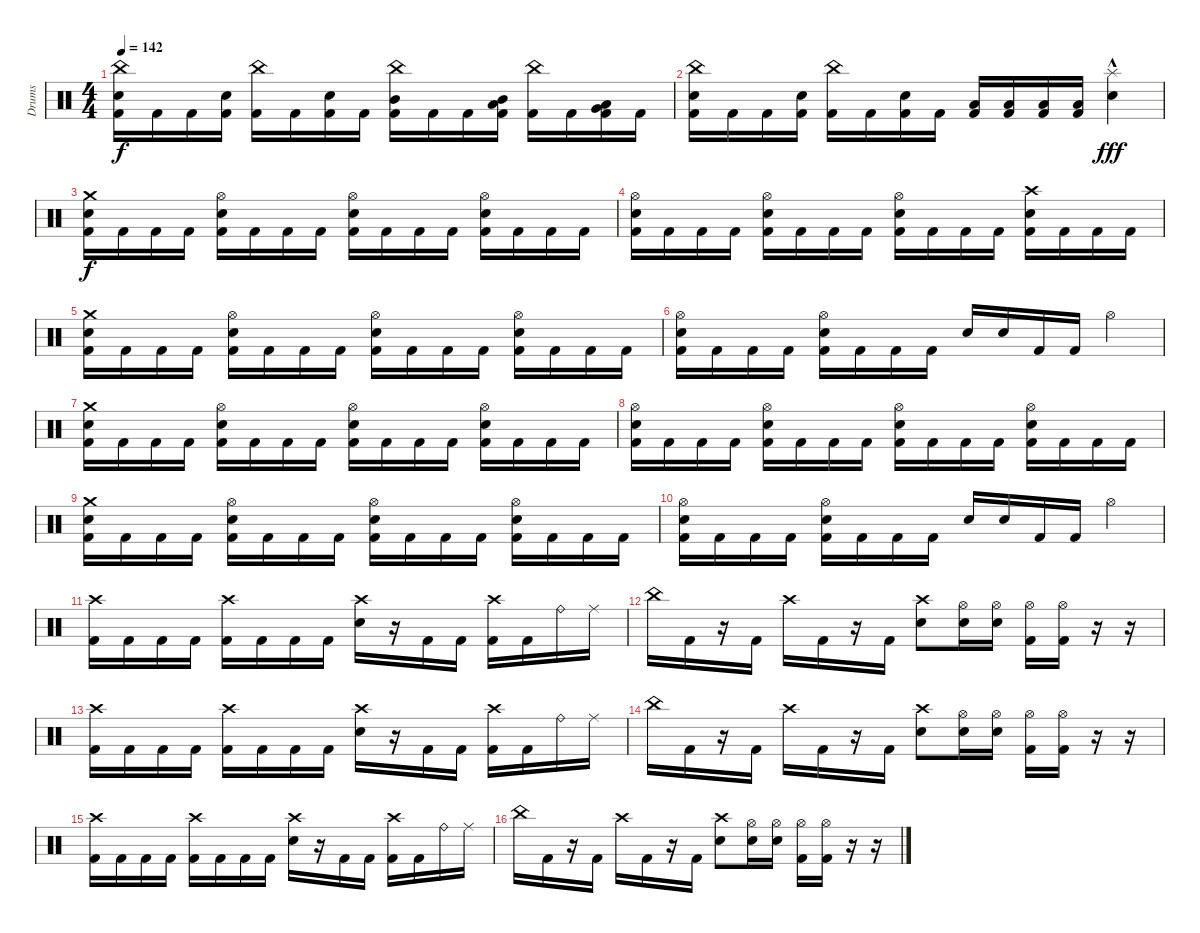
\track ("Drums" "Drums") {instrument percussion}
\staff {score}
\articulation defaults
\ts (4 4)
\tempo 142
\clef neutral
\ks c
("China (hit)" "Electric Snare (hit)" "Kick (hit) 2").16{dy f} "Kick (hit) 2".16 "Kick (hit) 2".16 ("Electric Snare (hit)" "Kick (hit) 2").16 ("China (hit)" "Kick (hit) 2").16 "Kick (hit) 2".16 ("Electric Snare (hit)" "Kick (hit) 2").16 "Kick (hit) 2".16 ("China (hit)" "Mid Tom (hit)" "Kick (hit) 2").16 "Kick (hit) 2".16 "Kick (hit) 2".16 ("Mid Tom (hit)" "Low Tom (hit)" "Kick (hit) 2").16 ("China (hit)" "Kick (hit) 2").16 "Kick (hit) 2".16 ("Very Low Tom (hit)" "Low Floor Tom (hit)" "Kick (hit) 2").16 "Kick (hit) 2".16 |
("China (hit)" "Electric Snare (hit)" "Kick (hit) 2").16 "Kick (hit) 2".16 "Kick (hit) 2".16 ("Electric Snare (hit)" "Kick (hit) 2").16 ("China (hit)" "Kick (hit) 2").16 "Kick (hit) 2".16 ("Electric Snare (hit)" "Kick (hit) 2").16 "Kick (hit) 2".16 ("Low Tom (hit)" "Kick (hit) 2").16 ("Low Tom (hit)" "Kick (hit) 2").16 ("Low Floor Tom (hit)" "Kick (hit) 2").16 ("Low Floor Tom (hit)" "Kick (hit) 2").16 ("Splash (hit)"{hac} "Electric Snare (hit)").4{dy fff} |
("Crash medium (hit)" "Electric Snare (hit)" "Kick (hit) 2").16{dy f} "Kick (hit) 2".16 "Kick (hit) 2".16 "Kick (hit) 2".16 ("Hi-Hat (open)" "Electric Snare (hit)" "Kick (hit) 2").16 "Kick (hit) 2".16 "Kick (hit) 2".16 "Kick (hit) 2".16 ("Hi-Hat (open)" "Electric Snare (hit)" "Kick (hit) 2").16 "Kick (hit) 2".16 "Kick (hit) 2".16 "Kick (hit) 2".16 ("Hi-Hat (open)" "Electric Snare (hit)" "Kick (hit) 2").16 "Kick (hit) 2".16 "Kick (hit) 2".16 "Kick (hit) 2".16 |
("Hi-Hat (open)" "Electric Snare (hit)" "Kick (hit) 2").16 "Kick (hit) 2".16 "Kick (hit) 2".16 "Kick (hit) 2".16 ("Hi-Hat (open)" "Electric Snare (hit)" "Kick (hit) 2").16 "Kick (hit) 2".16 "Kick (hit) 2".16 "Kick (hit) 2".16 ("Hi-Hat (open)" "Electric Snare (hit)" "Kick (hit) 2").16 "Kick (hit) 2".16 "Kick (hit) 2".16 "Kick (hit) 2".16 ("Crash high (hit)" "Electric Snare (hit)" "Kick (hit) 2").16 "Kick (hit) 2".16 "Kick (hit) 2".16 "Kick (hit) 2".16 |
("Crash medium (hit)" "Electric Snare (hit)" "Kick (hit) 2").16 "Kick (hit) 2".16 "Kick (hit) 2".16 "Kick (hit) 2".16 ("Hi-Hat (open)" "Electric Snare (hit)" "Kick (hit) 2").16 "Kick (hit) 2".16 "Kick (hit) 2".16 "Kick (hit) 2".16 ("Hi-Hat (open)" "Electric Snare (hit)" "Kick (hit) 2").16 "Kick (hit) 2".16 "Kick (hit) 2".16 "Kick (hit) 2".16 ("Hi-Hat (open)" "Electric Snare (hit)" "Kick (hit) 2").16 "Kick (hit) 2".16 "Kick (hit) 2".16 "Kick (hit) 2".16 |
("Hi-Hat (open)" "Electric Snare (hit)" "Kick (hit) 2").16 "Kick (hit) 2".16 "Kick (hit) 2".16 "Kick (hit) 2".16 ("Hi-Hat (open)" "Electric Snare (hit)" "Kick (hit) 2").16 "Kick (hit) 2".16 "Kick (hit) 2".16 "Kick (hit) 2".16 "Electric Snare (hit)".16 "Electric Snare (hit)".16 "Kick (hit) 2".16 "Kick (hit) 2".16 "Hi-Hat (open)".4 |
("Crash medium (hit)" "Electric Snare (hit)" "Kick (hit) 2").16 "Kick (hit) 2".16 "Kick (hit) 2".16 "Kick (hit) 2".16 ("Hi-Hat (open)" "Electric Snare (hit)" "Kick (hit) 2").16 "Kick (hit) 2".16 "Kick (hit) 2".16 "Kick (hit) 2".16 ("Hi-Hat (open)" "Electric Snare (hit)" "Kick (hit) 2").16 "Kick (hit) 2".16 "Kick (hit) 2".16 "Kick (hit) 2".16 ("Hi-Hat (open)" "Electric Snare (hit)" "Kick (hit) 2").16 "Kick (hit) 2".16 "Kick (hit) 2".16 "Kick (hit) 2".16 |
("Hi-Hat (open)" "Electric Snare (hit)" "Kick (hit) 2").16 "Kick (hit) 2".16 "Kick (hit) 2".16 "Kick (hit) 2".16 ("Hi-Hat (open)" "Electric Snare (hit)" "Kick (hit) 2").16 "Kick (hit) 2".16 "Kick (hit) 2".16 "Kick (hit) 2".16 ("Hi-Hat (open)" "Electric Snare (hit)" "Kick (hit) 2").16 "Kick (hit) 2".16 "Kick (hit) 2".16 "Kick (hit) 2".16 ("Hi-Hat (open)" "Electric Snare (hit)" "Kick (hit) 2").16 "Kick (hit) 2".16 "Kick (hit) 2".16 "Kick (hit) 2".16 |
("Crash medium (hit)" "Electric Snare (hit)" "Kick (hit) 2").16 "Kick (hit) 2".16 "Kick (hit) 2".16 "Kick (hit) 2".16 ("Hi-Hat (open)" "Electric Snare (hit)" "Kick (hit) 2").16 "Kick (hit) 2".16 "Kick (hit) 2".16 "Kick (hit) 2".16 ("Hi-Hat (open)" "Electric Snare (hit)" "Kick (hit) 2").16 "Kick (hit) 2".16 "Kick (hit) 2".16 "Kick (hit) 2".16 ("Hi-Hat (open)" "Electric Snare (hit)" "Kick (hit) 2").16 "Kick (hit) 2".16 "Kick (hit) 2".16 "Kick (hit) 2".16 |
("Hi-Hat (open)" "Electric Snare (hit)" "Kick (hit) 2").16 "Kick (hit) 2".16 "Kick (hit) 2".16 "Kick (hit) 2".16 ("Hi-Hat (open)" "Electric Snare (hit)" "Kick (hit) 2").16 "Kick (hit) 2".16 "Kick (hit) 2".16 "Kick (hit) 2".16 "Electric Snare (hit)".16 "Electric Snare (hit)".16 "Kick (hit) 2".16 "Kick (hit) 2".16 "Hi-Hat (open)".4 |
("Crash high (hit)" "Kick (hit) 2").16 "Kick (hit) 2".16 "Kick (hit) 2".16 "Kick (hit) 2".16 ("Crash high (hit)" "Kick (hit) 2").16 "Kick (hit) 2".16 "Kick (hit) 2".16 "Kick (hit) 2".16 ("Crash high (hit)" "Electric Snare (hit)").16 r.16 "Kick (hit) 2".16 "Kick (hit) 2".16 ("Crash high (hit)" "Kick (hit) 2").16 "Kick (hit) 2".16 "Ride (bell)".16 "Ride (middle)".16 |
"China (hit)".16 "Kick (hit) 2".16 r.16 "Kick (hit) 2".16 "Crash high (hit)".16 "Kick (hit) 2".16 r.16 "Kick (hit) 2".16 ("Crash high (hit)" "Electric Snare (hit)").8 ("Hi-Hat (open)" "Electric Snare (hit)").16 ("Hi-Hat (open)" "Electric Snare (hit)").16 ("Hi-Hat (open)" "Kick (hit) 2").16 ("Hi-Hat (open)" "Kick (hit) 2").16 r.16 r.16 |
("Crash high (hit)" "Kick (hit) 2").16 "Kick (hit) 2".16 "Kick (hit) 2".16 "Kick (hit) 2".16 ("Crash high (hit)" "Kick (hit) 2").16 "Kick (hit) 2".16 "Kick (hit) 2".16 "Kick (hit) 2".16 ("Crash high (hit)" "Electric Snare (hit)").16 r.16 "Kick (hit) 2".16 "Kick (hit) 2".16 ("Crash high (hit)" "Kick (hit) 2").16 "Kick (hit) 2".16 "Ride (bell)".16 "Ride (middle)".16 |
"China (hit)".16 "Kick (hit) 2".16 r.16 "Kick (hit) 2".16 "Crash high (hit)".16 "Kick (hit) 2".16 r.16 "Kick (hit) 2".16 ("Crash high (hit)" "Electric Snare (hit)").8 ("Hi-Hat (open)" "Electric Snare (hit)").16 ("Hi-Hat (open)" "Electric Snare (hit)").16 ("Hi-Hat (open)" "Kick (hit) 2").16 ("Hi-Hat (open)" "Kick (hit) 2").16 r.16 r.16 |
("Crash high (hit)" "Kick (hit) 2").16 "Kick (hit) 2".16 "Kick (hit) 2".16 "Kick (hit) 2".16 ("Crash high (hit)" "Kick (hit) 2").16 "Kick (hit) 2".16 "Kick (hit) 2".16 "Kick (hit) 2".16 ("Crash high (hit)" "Electric Snare (hit)").16 r.16 "Kick (hit) 2".16 "Kick (hit) 2".16 ("Crash high (hit)" "Kick (hit) 2").16 "Kick (hit) 2".16 "Ride (bell)".16 "Ride (middle)".16 |
"China (hit)".16 "Kick (hit) 2".16 r.16 "Kick (hit) 2".16 "Crash high (hit)".16 "Kick (hit) 2".16 r.16 "Kick (hit) 2".16 ("Crash high (hit)" "Electric Snare (hit)").8 ("Hi-Hat (open)" "Electric Snare (hit)").16 ("Hi-Hat (open)" "Electric Snare (hit)").16 ("Hi-Hat (open)" "Kick (hit) 2").16 ("Hi-Hat (open)" "Kick (hit) 2").16 r.16 r.16
